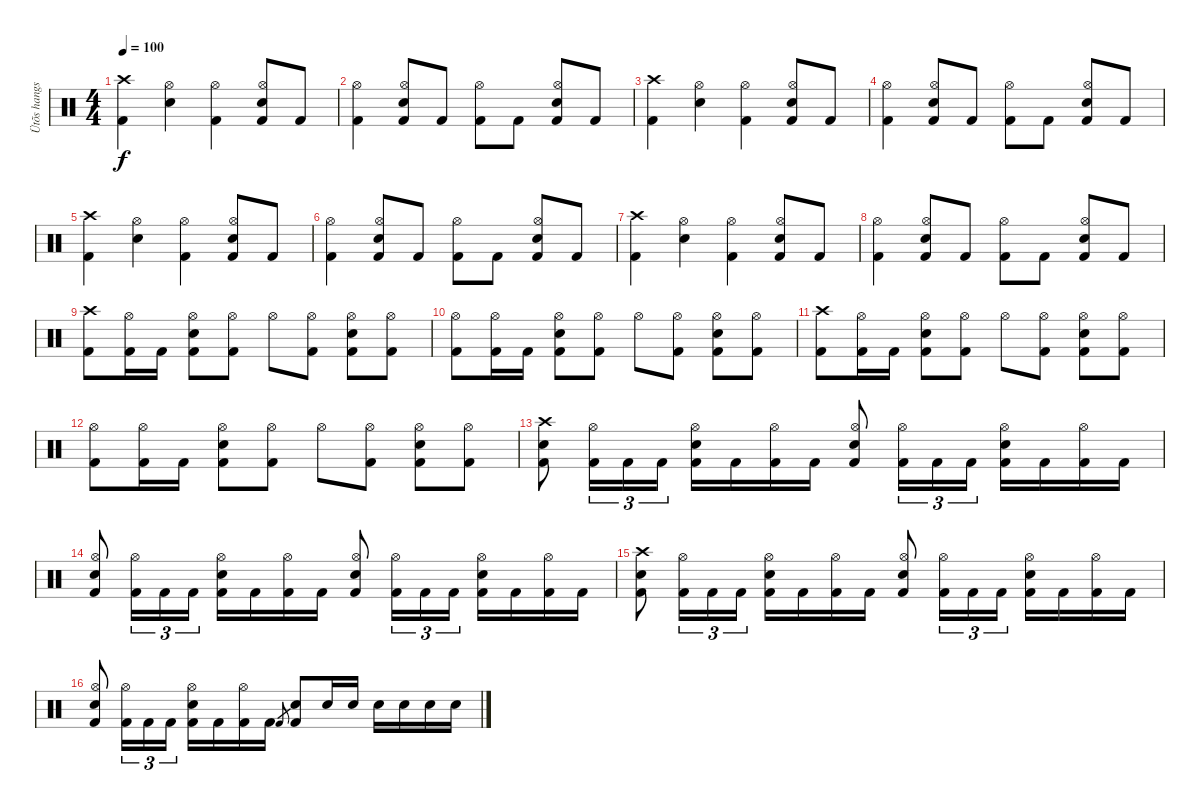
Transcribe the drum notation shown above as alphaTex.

\track ("Ütõs hangszer" "Ütõs hangs") {instrument percussion}
\staff {score}
\articulation defaults
\ts (4 4)
\tempo 100
\clef neutral
\ks c
("Crash high (hit)" "Kick (hit) 2").4{dy f} ("Hi-Hat (open)" "Snare (hit) 2").4 ("Hi-Hat (open)" "Kick (hit) 2").4 ("Snare (hit) 2" "Hi-Hat (open)" "Kick (hit) 2").8 "Kick (hit) 2".8 |
("Hi-Hat (open)" "Kick (hit) 2").4 ("Hi-Hat (open)" "Snare (hit) 2" "Kick (hit) 2").8 "Kick (hit) 2".8 ("Hi-Hat (open)" "Kick (hit) 2").8 "Kick (hit) 2".8 ("Hi-Hat (open)" "Snare (hit) 2" "Kick (hit) 2").8 "Kick (hit) 2".8 |
("Crash high (hit)" "Kick (hit) 2").4 ("Hi-Hat (open)" "Snare (hit) 2").4 ("Hi-Hat (open)" "Kick (hit) 2").4 ("Snare (hit) 2" "Hi-Hat (open)" "Kick (hit) 2").8 "Kick (hit) 2".8 |
("Hi-Hat (open)" "Kick (hit) 2").4 ("Hi-Hat (open)" "Snare (hit) 2" "Kick (hit) 2").8 "Kick (hit) 2".8 ("Hi-Hat (open)" "Kick (hit) 2").8 "Kick (hit) 2".8 ("Hi-Hat (open)" "Snare (hit) 2" "Kick (hit) 2").8 "Kick (hit) 2".8 |
("Crash high (hit)" "Kick (hit) 2").4 ("Hi-Hat (open)" "Snare (hit) 2").4 ("Hi-Hat (open)" "Kick (hit) 2").4 ("Snare (hit) 2" "Hi-Hat (open)" "Kick (hit) 2").8 "Kick (hit) 2".8 |
("Hi-Hat (open)" "Kick (hit) 2").4 ("Hi-Hat (open)" "Snare (hit) 2" "Kick (hit) 2").8 "Kick (hit) 2".8 ("Hi-Hat (open)" "Kick (hit) 2").8 "Kick (hit) 2".8 ("Hi-Hat (open)" "Snare (hit) 2" "Kick (hit) 2").8 "Kick (hit) 2".8 |
("Crash high (hit)" "Kick (hit) 2").4 ("Hi-Hat (open)" "Snare (hit) 2").4 ("Hi-Hat (open)" "Kick (hit) 2").4 ("Snare (hit) 2" "Hi-Hat (open)" "Kick (hit) 2").8 "Kick (hit) 2".8 |
("Hi-Hat (open)" "Kick (hit) 2").4 ("Hi-Hat (open)" "Snare (hit) 2" "Kick (hit) 2").8 "Kick (hit) 2".8 ("Hi-Hat (open)" "Kick (hit) 2").8 "Kick (hit) 2".8 ("Hi-Hat (open)" "Snare (hit) 2" "Kick (hit) 2").8 "Kick (hit) 2".8 |
("Crash high (hit)" "Kick (hit) 2").8 ("Hi-Hat (open)" "Kick (hit) 2").16 "Kick (hit) 2".16 ("Hi-Hat (open)" "Snare (hit) 2" "Kick (hit) 2").8 ("Hi-Hat (open)" "Kick (hit) 2").8 "Hi-Hat (open)".8 ("Hi-Hat (open)" "Kick (hit) 2").8 ("Hi-Hat (open)" "Snare (hit) 2" "Kick (hit) 2").8 ("Hi-Hat (open)" "Kick (hit) 2").8 |
("Hi-Hat (open)" "Kick (hit) 2").8 ("Hi-Hat (open)" "Kick (hit) 2").16 "Kick (hit) 2".16 ("Hi-Hat (open)" "Snare (hit) 2" "Kick (hit) 2").8 ("Hi-Hat (open)" "Kick (hit) 2").8 "Hi-Hat (open)".8 ("Hi-Hat (open)" "Kick (hit) 2").8 ("Hi-Hat (open)" "Snare (hit) 2" "Kick (hit) 2").8 ("Hi-Hat (open)" "Kick (hit) 2").8 |
("Crash high (hit)" "Kick (hit) 2").8 ("Hi-Hat (open)" "Kick (hit) 2").16 "Kick (hit) 2".16 ("Hi-Hat (open)" "Snare (hit) 2" "Kick (hit) 2").8 ("Hi-Hat (open)" "Kick (hit) 2").8 "Hi-Hat (open)".8 ("Hi-Hat (open)" "Kick (hit) 2").8 ("Hi-Hat (open)" "Snare (hit) 2" "Kick (hit) 2").8 ("Hi-Hat (open)" "Kick (hit) 2").8 |
("Hi-Hat (open)" "Kick (hit) 2").8 ("Hi-Hat (open)" "Kick (hit) 2").16 "Kick (hit) 2".16 ("Hi-Hat (open)" "Snare (hit) 2" "Kick (hit) 2").8 ("Hi-Hat (open)" "Kick (hit) 2").8 "Hi-Hat (open)".8 ("Hi-Hat (open)" "Kick (hit) 2").8 ("Hi-Hat (open)" "Snare (hit) 2" "Kick (hit) 2").8 ("Hi-Hat (open)" "Kick (hit) 2").8 |
("Crash high (hit)" "Snare (hit) 2" "Kick (hit) 2").8 ("Hi-Hat (open)" "Kick (hit) 2").16{tu (3 2)} "Kick (hit) 2".16{tu (3 2)} "Kick (hit) 2".16{tu (3 2)} ("Hi-Hat (open)" "Snare (hit) 2" "Kick (hit) 2").16 "Kick (hit) 2".16 ("Hi-Hat (open)" "Kick (hit) 2").16 "Kick (hit) 2".16 ("Hi-Hat (open)" "Snare (hit) 2" "Kick (hit) 2").8 ("Hi-Hat (open)" "Kick (hit) 2").16{tu (3 2)} "Kick (hit) 2".16{tu (3 2)} "Kick (hit) 2".16{tu (3 2)} ("Hi-Hat (open)" "Snare (hit) 2" "Kick (hit) 2").16 "Kick (hit) 2".16 ("Hi-Hat (open)" "Kick (hit) 2").16 "Kick (hit) 2".16 |
("Hi-Hat (open)" "Snare (hit) 2" "Kick (hit) 2").8 ("Hi-Hat (open)" "Kick (hit) 2").16{tu (3 2)} "Kick (hit) 2".16{tu (3 2)} "Kick (hit) 2".16{tu (3 2)} ("Hi-Hat (open)" "Snare (hit) 2" "Kick (hit) 2").16 "Kick (hit) 2".16 ("Hi-Hat (open)" "Kick (hit) 2").16 "Kick (hit) 2".16 ("Hi-Hat (open)" "Snare (hit) 2" "Kick (hit) 2").8 ("Hi-Hat (open)" "Kick (hit) 2").16{tu (3 2)} "Kick (hit) 2".16{tu (3 2)} "Kick (hit) 2".16{tu (3 2)} ("Hi-Hat (open)" "Snare (hit) 2" "Kick (hit) 2").16 "Kick (hit) 2".16 ("Hi-Hat (open)" "Kick (hit) 2").16 "Kick (hit) 2".16 |
("Crash high (hit)" "Snare (hit) 2" "Kick (hit) 2").8 ("Hi-Hat (open)" "Kick (hit) 2").16{tu (3 2)} "Kick (hit) 2".16{tu (3 2)} "Kick (hit) 2".16{tu (3 2)} ("Hi-Hat (open)" "Snare (hit) 2" "Kick (hit) 2").16 "Kick (hit) 2".16 ("Hi-Hat (open)" "Kick (hit) 2").16 "Kick (hit) 2".16 ("Hi-Hat (open)" "Snare (hit) 2" "Kick (hit) 2").8 ("Hi-Hat (open)" "Kick (hit) 2").16{tu (3 2)} "Kick (hit) 2".16{tu (3 2)} "Kick (hit) 2".16{tu (3 2)} ("Hi-Hat (open)" "Snare (hit) 2" "Kick (hit) 2").16 "Kick (hit) 2".16 ("Hi-Hat (open)" "Kick (hit) 2").16 "Kick (hit) 2".16 |
("Hi-Hat (open)" "Snare (hit) 2" "Kick (hit) 2").8 ("Hi-Hat (open)" "Kick (hit) 2").16{tu (3 2)} "Kick (hit) 2".16{tu (3 2)} "Kick (hit) 2".16{tu (3 2)} ("Hi-Hat (open)" "Snare (hit) 2" "Kick (hit) 2").16 "Kick (hit) 2".16 ("Hi-Hat (open)" "Kick (hit) 2").16 "Kick (hit) 2".16 "Kick (hit) 2"{h}.8{gr} ("Snare (hit) 2" "Kick (hit) 2").8 "Snare (hit) 2".16 "Snare (hit) 2".16 "Snare (hit) 2".16 "Snare (hit) 2".16 "Snare (hit) 2".16 "Snare (hit) 2".16
